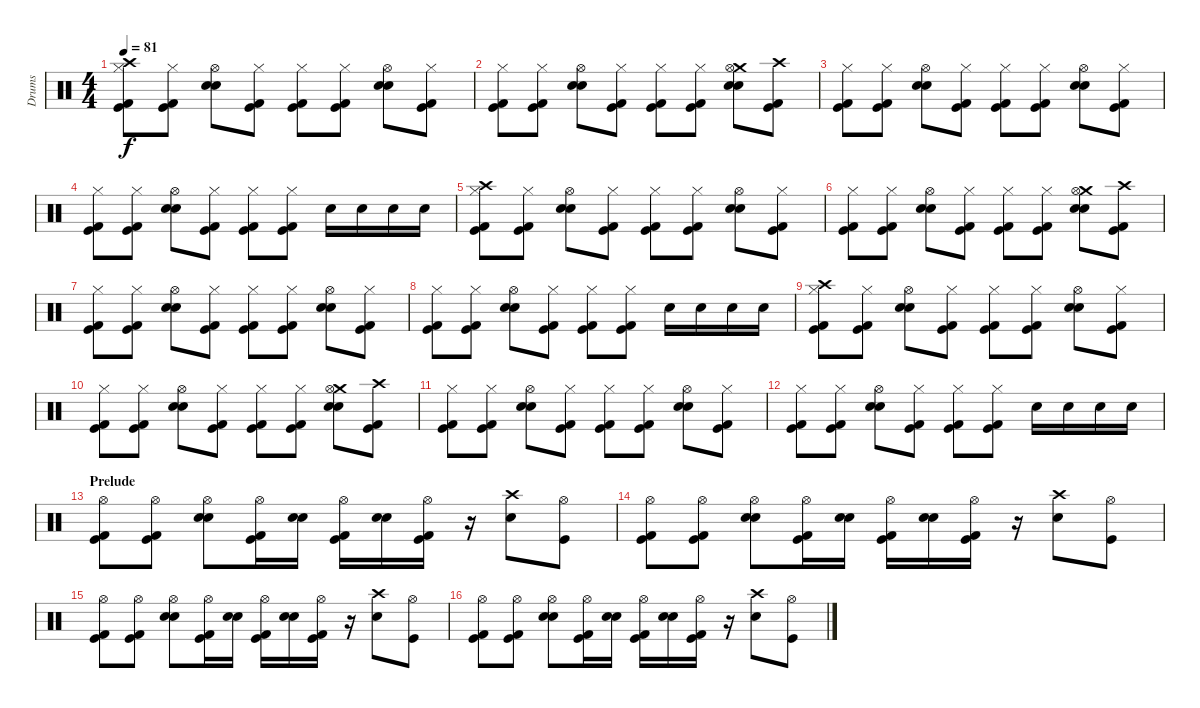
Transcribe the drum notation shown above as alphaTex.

\track ("Drums" "Drums") {instrument percussion}
\staff {score}
\articulation defaults
\ts (4 4)
\tempo 81
\clef neutral
\ks c
("Hi-Hat (closed)" "Crash high (hit)" "Kick (hit) 2" "Kick (hit)").8{dy f} ("Hi-Hat (closed)" "Kick (hit) 2" "Kick (hit)").8 ("Hi-Hat (open)" "Snare (hit) 2" "Electric Snare (hit)").8 ("Hi-Hat (closed)" "Kick (hit) 2" "Kick (hit)").8 ("Hi-Hat (closed)" "Kick (hit) 2" "Kick (hit)").8 ("Hi-Hat (closed)" "Kick (hit) 2" "Kick (hit)").8 ("Hi-Hat (open)" "Snare (hit) 2" "Electric Snare (hit)").8 ("Hi-Hat (closed)" "Kick (hit) 2" "Kick (hit)").8 |
("Hi-Hat (closed)" "Kick (hit) 2" "Kick (hit)").8 ("Hi-Hat (closed)" "Kick (hit) 2" "Kick (hit)").8 ("Hi-Hat (open)" "Snare (hit) 2" "Electric Snare (hit)").8 ("Hi-Hat (closed)" "Kick (hit) 2" "Kick (hit)").8 ("Hi-Hat (closed)" "Kick (hit) 2" "Kick (hit)").8 ("Hi-Hat (closed)" "Kick (hit) 2" "Kick (hit)").8 ("Crash medium (hit)" "Hi-Hat (open)" "Snare (hit) 2" "Electric Snare (hit)").8 ("Crash high (hit)" "Kick (hit) 2" "Kick (hit)").8 |
("Hi-Hat (closed)" "Kick (hit) 2" "Kick (hit)").8 ("Hi-Hat (closed)" "Kick (hit) 2" "Kick (hit)").8 ("Hi-Hat (open)" "Snare (hit) 2" "Electric Snare (hit)").8 ("Hi-Hat (closed)" "Kick (hit) 2" "Kick (hit)").8 ("Hi-Hat (closed)" "Kick (hit) 2" "Kick (hit)").8 ("Hi-Hat (closed)" "Kick (hit) 2" "Kick (hit)").8 ("Hi-Hat (open)" "Snare (hit) 2" "Electric Snare (hit)").8 ("Hi-Hat (closed)" "Kick (hit) 2" "Kick (hit)").8 |
("Hi-Hat (closed)" "Kick (hit) 2" "Kick (hit)").8 ("Hi-Hat (closed)" "Kick (hit) 2" "Kick (hit)").8 ("Hi-Hat (open)" "Snare (hit) 2" "Electric Snare (hit)").8 ("Hi-Hat (closed)" "Kick (hit) 2" "Kick (hit)").8 ("Hi-Hat (closed)" "Kick (hit) 2" "Kick (hit)").8 ("Hi-Hat (closed)" "Kick (hit) 2" "Kick (hit)").8 "Snare (hit) 2".16 "Snare (hit) 2".16 "Snare (hit) 2".16 "Snare (hit) 2".16 |
("Hi-Hat (closed)" "Crash high (hit)" "Kick (hit) 2" "Kick (hit)").8 ("Hi-Hat (closed)" "Kick (hit) 2" "Kick (hit)").8 ("Hi-Hat (open)" "Snare (hit) 2" "Electric Snare (hit)").8 ("Hi-Hat (closed)" "Kick (hit) 2" "Kick (hit)").8 ("Hi-Hat (closed)" "Kick (hit) 2" "Kick (hit)").8 ("Hi-Hat (closed)" "Kick (hit) 2" "Kick (hit)").8 ("Hi-Hat (open)" "Snare (hit) 2" "Electric Snare (hit)").8 ("Hi-Hat (closed)" "Kick (hit) 2" "Kick (hit)").8 |
("Hi-Hat (closed)" "Kick (hit) 2" "Kick (hit)").8 ("Hi-Hat (closed)" "Kick (hit) 2" "Kick (hit)").8 ("Hi-Hat (open)" "Snare (hit) 2" "Electric Snare (hit)").8 ("Hi-Hat (closed)" "Kick (hit) 2" "Kick (hit)").8 ("Hi-Hat (closed)" "Kick (hit) 2" "Kick (hit)").8 ("Hi-Hat (closed)" "Kick (hit) 2" "Kick (hit)").8 ("Crash medium (hit)" "Hi-Hat (open)" "Snare (hit) 2" "Electric Snare (hit)").8 ("Crash high (hit)" "Kick (hit) 2" "Kick (hit)").8 |
("Hi-Hat (closed)" "Kick (hit) 2" "Kick (hit)").8 ("Hi-Hat (closed)" "Kick (hit) 2" "Kick (hit)").8 ("Hi-Hat (open)" "Snare (hit) 2" "Electric Snare (hit)").8 ("Hi-Hat (closed)" "Kick (hit) 2" "Kick (hit)").8 ("Hi-Hat (closed)" "Kick (hit) 2" "Kick (hit)").8 ("Hi-Hat (closed)" "Kick (hit) 2" "Kick (hit)").8 ("Hi-Hat (open)" "Snare (hit) 2" "Electric Snare (hit)").8 ("Hi-Hat (closed)" "Kick (hit) 2" "Kick (hit)").8 |
("Hi-Hat (closed)" "Kick (hit) 2" "Kick (hit)").8 ("Hi-Hat (closed)" "Kick (hit) 2" "Kick (hit)").8 ("Hi-Hat (open)" "Snare (hit) 2" "Electric Snare (hit)").8 ("Hi-Hat (closed)" "Kick (hit) 2" "Kick (hit)").8 ("Hi-Hat (closed)" "Kick (hit) 2" "Kick (hit)").8 ("Hi-Hat (closed)" "Kick (hit) 2" "Kick (hit)").8 "Snare (hit) 2".16 "Snare (hit) 2".16 "Snare (hit) 2".16 "Snare (hit) 2".16 |
("Hi-Hat (closed)" "Crash high (hit)" "Kick (hit) 2" "Kick (hit)").8 ("Hi-Hat (closed)" "Kick (hit) 2" "Kick (hit)").8 ("Hi-Hat (open)" "Snare (hit) 2" "Electric Snare (hit)").8 ("Hi-Hat (closed)" "Kick (hit) 2" "Kick (hit)").8 ("Hi-Hat (closed)" "Kick (hit) 2" "Kick (hit)").8 ("Hi-Hat (closed)" "Kick (hit) 2" "Kick (hit)").8 ("Hi-Hat (open)" "Snare (hit) 2" "Electric Snare (hit)").8 ("Hi-Hat (closed)" "Kick (hit) 2" "Kick (hit)").8 |
("Hi-Hat (closed)" "Kick (hit) 2" "Kick (hit)").8 ("Hi-Hat (closed)" "Kick (hit) 2" "Kick (hit)").8 ("Hi-Hat (open)" "Snare (hit) 2" "Electric Snare (hit)").8 ("Hi-Hat (closed)" "Kick (hit) 2" "Kick (hit)").8 ("Hi-Hat (closed)" "Kick (hit) 2" "Kick (hit)").8 ("Hi-Hat (closed)" "Kick (hit) 2" "Kick (hit)").8 ("Crash medium (hit)" "Hi-Hat (open)" "Snare (hit) 2" "Electric Snare (hit)").8 ("Crash high (hit)" "Kick (hit) 2" "Kick (hit)").8 |
("Hi-Hat (closed)" "Kick (hit) 2" "Kick (hit)").8 ("Hi-Hat (closed)" "Kick (hit) 2" "Kick (hit)").8 ("Hi-Hat (open)" "Snare (hit) 2" "Electric Snare (hit)").8 ("Hi-Hat (closed)" "Kick (hit) 2" "Kick (hit)").8 ("Hi-Hat (closed)" "Kick (hit) 2" "Kick (hit)").8 ("Hi-Hat (closed)" "Kick (hit) 2" "Kick (hit)").8 ("Hi-Hat (open)" "Snare (hit) 2" "Electric Snare (hit)").8 ("Hi-Hat (closed)" "Kick (hit) 2" "Kick (hit)").8 |
("Hi-Hat (closed)" "Kick (hit) 2" "Kick (hit)").8 ("Hi-Hat (closed)" "Kick (hit) 2" "Kick (hit)").8 ("Hi-Hat (open)" "Snare (hit) 2" "Electric Snare (hit)").8 ("Hi-Hat (closed)" "Kick (hit) 2" "Kick (hit)").8 ("Hi-Hat (closed)" "Kick (hit) 2" "Kick (hit)").8 ("Hi-Hat (closed)" "Kick (hit) 2" "Kick (hit)").8 "Snare (hit) 2".16 "Snare (hit) 2".16 "Snare (hit) 2".16 "Snare (hit) 2".16 |
\section ("" "Prelude")
("Hi-Hat (open)" "Kick (hit) 2" "Kick (hit)").8 ("Hi-Hat (open)" "Kick (hit) 2" "Kick (hit)").8 ("Hi-Hat (open)" "Electric Snare (hit)" "Snare (hit) 2").8 ("Hi-Hat (open)" "Kick (hit) 2" "Kick (hit)").16 ("Electric Snare (hit)" "Snare (hit) 2").16 ("Hi-Hat (open)" "Kick (hit) 2" "Kick (hit)").16 ("Electric Snare (hit)" "Snare (hit) 2").16 ("Hi-Hat (open)" "Kick (hit) 2" "Kick (hit)").16 r.16 ("Crash high (hit)" "Electric Snare (hit)").8 ("Hi-Hat (open)" "Kick (hit)").8 |
("Hi-Hat (open)" "Kick (hit) 2" "Kick (hit)").8 ("Hi-Hat (open)" "Kick (hit) 2" "Kick (hit)").8 ("Hi-Hat (open)" "Electric Snare (hit)" "Snare (hit) 2").8 ("Hi-Hat (open)" "Kick (hit) 2" "Kick (hit)").16 ("Electric Snare (hit)" "Snare (hit) 2").16 ("Hi-Hat (open)" "Kick (hit) 2" "Kick (hit)").16 ("Electric Snare (hit)" "Snare (hit) 2").16 ("Hi-Hat (open)" "Kick (hit) 2" "Kick (hit)").16 r.16 ("Crash high (hit)" "Electric Snare (hit)").8 ("Hi-Hat (open)" "Kick (hit)").8 |
("Hi-Hat (open)" "Kick (hit) 2" "Kick (hit)").8 ("Hi-Hat (open)" "Kick (hit) 2" "Kick (hit)").8 ("Hi-Hat (open)" "Electric Snare (hit)" "Snare (hit) 2").8 ("Hi-Hat (open)" "Kick (hit) 2" "Kick (hit)").16 ("Electric Snare (hit)" "Snare (hit) 2").16 ("Hi-Hat (open)" "Kick (hit) 2" "Kick (hit)").16 ("Electric Snare (hit)" "Snare (hit) 2").16 ("Hi-Hat (open)" "Kick (hit) 2" "Kick (hit)").16 r.16 ("Crash high (hit)" "Electric Snare (hit)").8 ("Hi-Hat (open)" "Kick (hit)").8 |
("Hi-Hat (open)" "Kick (hit) 2" "Kick (hit)").8 ("Hi-Hat (open)" "Kick (hit) 2" "Kick (hit)").8 ("Hi-Hat (open)" "Electric Snare (hit)" "Snare (hit) 2").8 ("Hi-Hat (open)" "Kick (hit) 2" "Kick (hit)").16 ("Electric Snare (hit)" "Snare (hit) 2").16 ("Hi-Hat (open)" "Kick (hit) 2" "Kick (hit)").16 ("Electric Snare (hit)" "Snare (hit) 2").16 ("Hi-Hat (open)" "Kick (hit) 2" "Kick (hit)").16 r.16 ("Crash high (hit)" "Electric Snare (hit)").8 ("Hi-Hat (open)" "Kick (hit)").8
